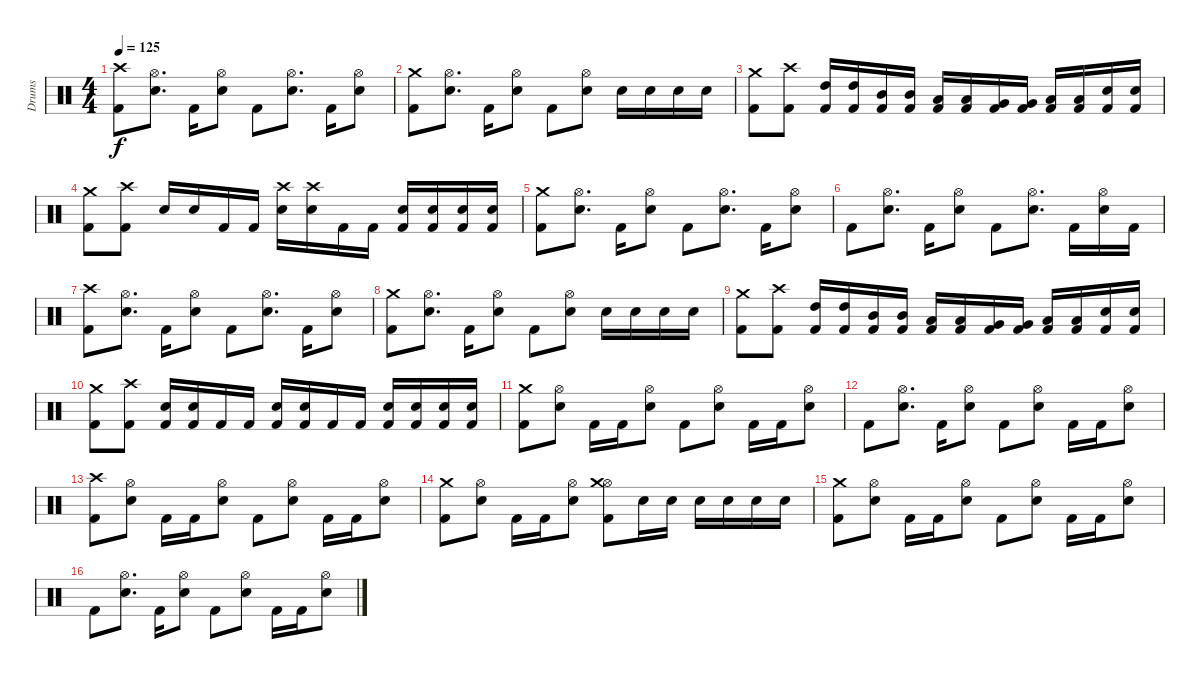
\track ("Drums" "Drums") {instrument percussion}
\staff {score}
\articulation defaults
\ts (4 4)
\tempo 125
\clef neutral
\ks c
("Crash high (hit)" "Kick (hit) 2").8{dy f} ("Hi-Hat (open)" "Snare (hit) 2").8{d} "Kick (hit) 2".16 ("Hi-Hat (open)" "Snare (hit) 2").8 "Kick (hit) 2".8 ("Hi-Hat (open)" "Snare (hit) 2").8{d} "Kick (hit) 2".16 ("Hi-Hat (open)" "Snare (hit) 2").8 |
("Crash medium (hit)" "Kick (hit) 2").8 ("Hi-Hat (open)" "Snare (hit) 2").8{d} "Kick (hit) 2".16 ("Hi-Hat (open)" "Snare (hit) 2").8 "Kick (hit) 2".8 ("Hi-Hat (open)" "Snare (hit) 2").8 "Snare (hit) 2".16 "Snare (hit) 2".16 "Snare (hit) 2".16 "Snare (hit) 2".16 |
("Crash medium (hit)" "Kick (hit) 2").8 ("Crash high (hit)" "Kick (hit) 2").8 ("High Tom (hit)" "Kick (hit) 2").16 ("High Tom (hit)" "Kick (hit) 2").16 ("Mid Tom (hit)" "Kick (hit) 2").16 ("Mid Tom (hit)" "Kick (hit) 2").16 ("Low Tom (hit)" "Kick (hit) 2").16 ("Low Tom (hit)" "Kick (hit) 2").16 ("Very Low Tom (hit)" "Kick (hit) 2").16 ("Very Low Tom (hit)" "Kick (hit) 2").16 ("Low Floor Tom (hit)" "Kick (hit) 2").16 ("Low Floor Tom (hit)" "Kick (hit) 2").16 ("Snare (hit) 2" "Kick (hit) 2").16 ("Snare (hit) 2" "Kick (hit) 2").16 |
("Crash medium (hit)" "Kick (hit) 2").8 ("Crash high (hit)" "Kick (hit) 2").8 "Snare (hit) 2".16 "Snare (hit) 2".16 "Kick (hit) 2".16 "Kick (hit) 2".16 ("Crash high (hit)" "Snare (hit) 2").16 ("Crash high (hit)" "Snare (hit) 2").16 "Kick (hit) 2".16 "Kick (hit) 2".16 ("Snare (hit) 2" "Kick (hit) 2").16 ("Snare (hit) 2" "Kick (hit) 2").16 ("Snare (hit) 2" "Kick (hit) 2").16 ("Snare (hit) 2" "Kick (hit) 2").16 |
("Crash medium (hit)" "Kick (hit) 2").8 ("Hi-Hat (open)" "Snare (hit) 2").8{d} "Kick (hit) 2".16 ("Hi-Hat (open)" "Snare (hit) 2").8 "Kick (hit) 2".8 ("Hi-Hat (open)" "Snare (hit) 2").8{d} "Kick (hit) 2".16 ("Hi-Hat (open)" "Snare (hit) 2").8 |
"Kick (hit) 2".8 ("Hi-Hat (open)" "Snare (hit) 2").8{d} "Kick (hit) 2".16 ("Hi-Hat (open)" "Snare (hit) 2").8 "Kick (hit) 2".8 ("Hi-Hat (open)" "Snare (hit) 2").8{d} "Kick (hit) 2".16 ("Hi-Hat (open)" "Snare (hit) 2").16 "Kick (hit) 2".16 |
("Crash high (hit)" "Kick (hit) 2").8 ("Hi-Hat (open)" "Snare (hit) 2").8{d} "Kick (hit) 2".16 ("Hi-Hat (open)" "Snare (hit) 2").8 "Kick (hit) 2".8 ("Hi-Hat (open)" "Snare (hit) 2").8{d} "Kick (hit) 2".16 ("Hi-Hat (open)" "Snare (hit) 2").8 |
("Crash medium (hit)" "Kick (hit) 2").8 ("Hi-Hat (open)" "Snare (hit) 2").8{d} "Kick (hit) 2".16 ("Hi-Hat (open)" "Snare (hit) 2").8 "Kick (hit) 2".8 ("Hi-Hat (open)" "Snare (hit) 2").8 "Snare (hit) 2".16 "Snare (hit) 2".16 "Snare (hit) 2".16 "Snare (hit) 2".16 |
("Crash medium (hit)" "Kick (hit) 2").8 ("Crash high (hit)" "Kick (hit) 2").8 ("High Tom (hit)" "Kick (hit) 2").16 ("High Tom (hit)" "Kick (hit) 2").16 ("Mid Tom (hit)" "Kick (hit) 2").16 ("Mid Tom (hit)" "Kick (hit) 2").16 ("Low Tom (hit)" "Kick (hit) 2").16 ("Low Tom (hit)" "Kick (hit) 2").16 ("Very Low Tom (hit)" "Kick (hit) 2").16 ("Very Low Tom (hit)" "Kick (hit) 2").16 ("Low Floor Tom (hit)" "Kick (hit) 2").16 ("Low Floor Tom (hit)" "Kick (hit) 2").16 ("Snare (hit) 2" "Kick (hit) 2").16 ("Snare (hit) 2" "Kick (hit) 2").16 |
("Crash medium (hit)" "Kick (hit) 2").8 ("Crash high (hit)" "Kick (hit) 2").8 ("Snare (hit) 2" "Kick (hit) 2").16 ("Snare (hit) 2" "Kick (hit) 2").16 "Kick (hit) 2".16 "Kick (hit) 2".16 ("Snare (hit) 2" "Kick (hit) 2").16 ("Snare (hit) 2" "Kick (hit) 2").16 "Kick (hit) 2".16 "Kick (hit) 2".16 ("Snare (hit) 2" "Kick (hit) 2").16 ("Snare (hit) 2" "Kick (hit) 2").16 ("Snare (hit) 2" "Kick (hit) 2").16 ("Snare (hit) 2" "Kick (hit) 2").16 |
("Crash medium (hit)" "Kick (hit) 2").8 ("Hi-Hat (open)" "Snare (hit) 2").8 "Kick (hit) 2".16 "Kick (hit) 2".16 ("Hi-Hat (open)" "Snare (hit) 2").8 "Kick (hit) 2".8 ("Hi-Hat (open)" "Snare (hit) 2").8 "Kick (hit) 2".16 "Kick (hit) 2".16 ("Hi-Hat (open)" "Snare (hit) 2").8 |
"Kick (hit) 2".8 ("Hi-Hat (open)" "Snare (hit) 2").8{d} "Kick (hit) 2".16 ("Hi-Hat (open)" "Snare (hit) 2").8 "Kick (hit) 2".8 ("Hi-Hat (open)" "Snare (hit) 2").8 "Kick (hit) 2".16 "Kick (hit) 2".16 ("Hi-Hat (open)" "Snare (hit) 2").8 |
("Crash high (hit)" "Kick (hit) 2").8 ("Hi-Hat (open)" "Snare (hit) 2").8 "Kick (hit) 2".16 "Kick (hit) 2".16 ("Hi-Hat (open)" "Snare (hit) 2").8 "Kick (hit) 2".8 ("Hi-Hat (open)" "Snare (hit) 2").8 "Kick (hit) 2".16 "Kick (hit) 2".16 ("Hi-Hat (open)" "Snare (hit) 2").8 |
("Crash medium (hit)" "Kick (hit) 2").8 ("Hi-Hat (open)" "Snare (hit) 2").8 "Kick (hit) 2".16 "Kick (hit) 2".16 ("Hi-Hat (open)" "Snare (hit) 2").8 ("Hi-Hat (open)" "Crash medium (hit)" "Kick (hit) 2").8 "Electric Snare (hit)".16 "Electric Snare (hit)".16 "Electric Snare (hit)".16 "Electric Snare (hit)".16 "Electric Snare (hit)".16 "Electric Snare (hit)".16 |
("Crash medium (hit)" "Kick (hit) 2").8 ("Hi-Hat (open)" "Snare (hit) 2").8 "Kick (hit) 2".16 "Kick (hit) 2".16 ("Hi-Hat (open)" "Snare (hit) 2").8 "Kick (hit) 2".8 ("Hi-Hat (open)" "Snare (hit) 2").8 "Kick (hit) 2".16 "Kick (hit) 2".16 ("Hi-Hat (open)" "Snare (hit) 2").8 |
"Kick (hit) 2".8 ("Hi-Hat (open)" "Snare (hit) 2").8{d} "Kick (hit) 2".16 ("Hi-Hat (open)" "Snare (hit) 2").8 "Kick (hit) 2".8 ("Hi-Hat (open)" "Snare (hit) 2").8 "Kick (hit) 2".16 "Kick (hit) 2".16 ("Hi-Hat (open)" "Snare (hit) 2").8
